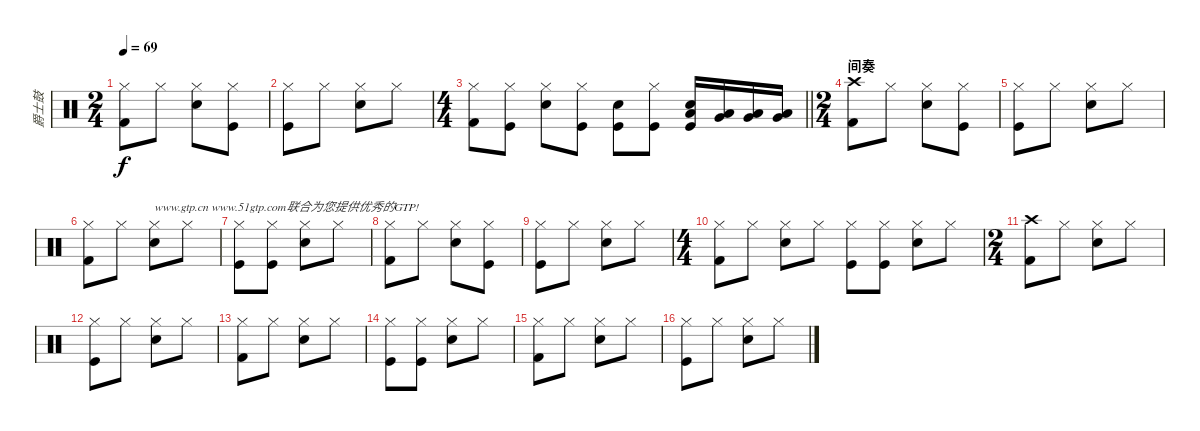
\track ("爵士鼓" "爵士鼓") {instrument percussion}
\staff {score}
\articulation defaults
\ts (2 4)
\tempo 69
\clef neutral
\ks c
("Hi-Hat (closed)" "Kick (hit) 2").8{dy f} "Hi-Hat (closed)".8 ("Hi-Hat (closed)" "Snare (hit) 2").8 ("Hi-Hat (closed)" "Kick (hit)").8 |
("Hi-Hat (closed)" "Kick (hit)").8 "Hi-Hat (closed)".8 ("Hi-Hat (closed)" "Snare (hit) 2").8 "Hi-Hat (closed)".8 |
\ts (4 4)
\barLineRight lightlight
("Hi-Hat (closed)" "Kick (hit) 2").8 ("Hi-Hat (closed)" "Kick (hit)").8 ("Hi-Hat (closed)" "Snare (hit) 2").8 ("Hi-Hat (closed)" "Kick (hit)").8 ("Snare (hit) 2" "Kick (hit)").8 ("Hi-Hat (closed)" "Kick (hit)").8 ("Low Floor Tom (hit)" "Snare (hit) 2" "Kick (hit)").16 ("Very Low Tom (hit)" "Low Tom (hit)").16 ("Very Low Tom (hit)" "Low Tom (hit)").16 ("Very Low Tom (hit)" "Low Tom (hit)").16 |
\ts (2 4)
\section ("" "间奏")
("Crash high (hit)" "Kick (hit) 2").8 "Hi-Hat (closed)".8 ("Hi-Hat (closed)" "Snare (hit) 2").8 ("Hi-Hat (closed)" "Kick (hit)").8 |
("Hi-Hat (closed)" "Kick (hit)").8 "Hi-Hat (closed)".8 ("Hi-Hat (closed)" "Snare (hit) 2").8 "Hi-Hat (closed)".8 |
("Hi-Hat (closed)" "Kick (hit) 2").8 "Hi-Hat (closed)".8 ("Hi-Hat (closed)" "Snare (hit) 2").8{txt "www.gtp.cn www.51gtp.com联合为您提供优秀的GTP!"} "Hi-Hat (closed)".8 |
("Hi-Hat (closed)" "Kick (hit)").8 ("Hi-Hat (closed)" "Kick (hit)").8 ("Hi-Hat (closed)" "Snare (hit) 2").8 "Hi-Hat (closed)".8 |
("Hi-Hat (closed)" "Kick (hit) 2").8 "Hi-Hat (closed)".8 ("Hi-Hat (closed)" "Snare (hit) 2").8 ("Hi-Hat (closed)" "Kick (hit)").8 |
("Hi-Hat (closed)" "Kick (hit)").8 "Hi-Hat (closed)".8 ("Hi-Hat (closed)" "Snare (hit) 2").8 "Hi-Hat (closed)".8 |
\ts (4 4)
("Hi-Hat (closed)" "Kick (hit) 2").8 "Hi-Hat (closed)".8 ("Hi-Hat (closed)" "Snare (hit) 2").8 "Hi-Hat (closed)".8 ("Hi-Hat (closed)" "Kick (hit)").8 ("Hi-Hat (closed)" "Kick (hit)").8 ("Hi-Hat (closed)" "Snare (hit) 2").8 "Hi-Hat (closed)".8 |
\ts (2 4)
("Crash high (hit)" "Kick (hit) 2").8 "Hi-Hat (closed)".8 ("Hi-Hat (closed)" "Snare (hit) 2").8 "Hi-Hat (closed)".8 |
("Hi-Hat (closed)" "Kick (hit)").8 "Hi-Hat (closed)".8 ("Hi-Hat (closed)" "Snare (hit) 2").8 "Hi-Hat (closed)".8 |
("Hi-Hat (closed)" "Kick (hit) 2").8 "Hi-Hat (closed)".8 ("Hi-Hat (closed)" "Snare (hit) 2").8 "Hi-Hat (closed)".8 |
("Hi-Hat (closed)" "Kick (hit)").8 ("Hi-Hat (closed)" "Kick (hit)").8 ("Hi-Hat (closed)" "Snare (hit) 2").8 "Hi-Hat (closed)".8 |
("Hi-Hat (closed)" "Kick (hit) 2").8 "Hi-Hat (closed)".8 ("Hi-Hat (closed)" "Snare (hit) 2").8 "Hi-Hat (closed)".8 |
("Hi-Hat (closed)" "Kick (hit)").8 "Hi-Hat (closed)".8 ("Hi-Hat (closed)" "Snare (hit) 2").8 "Hi-Hat (closed)".8
